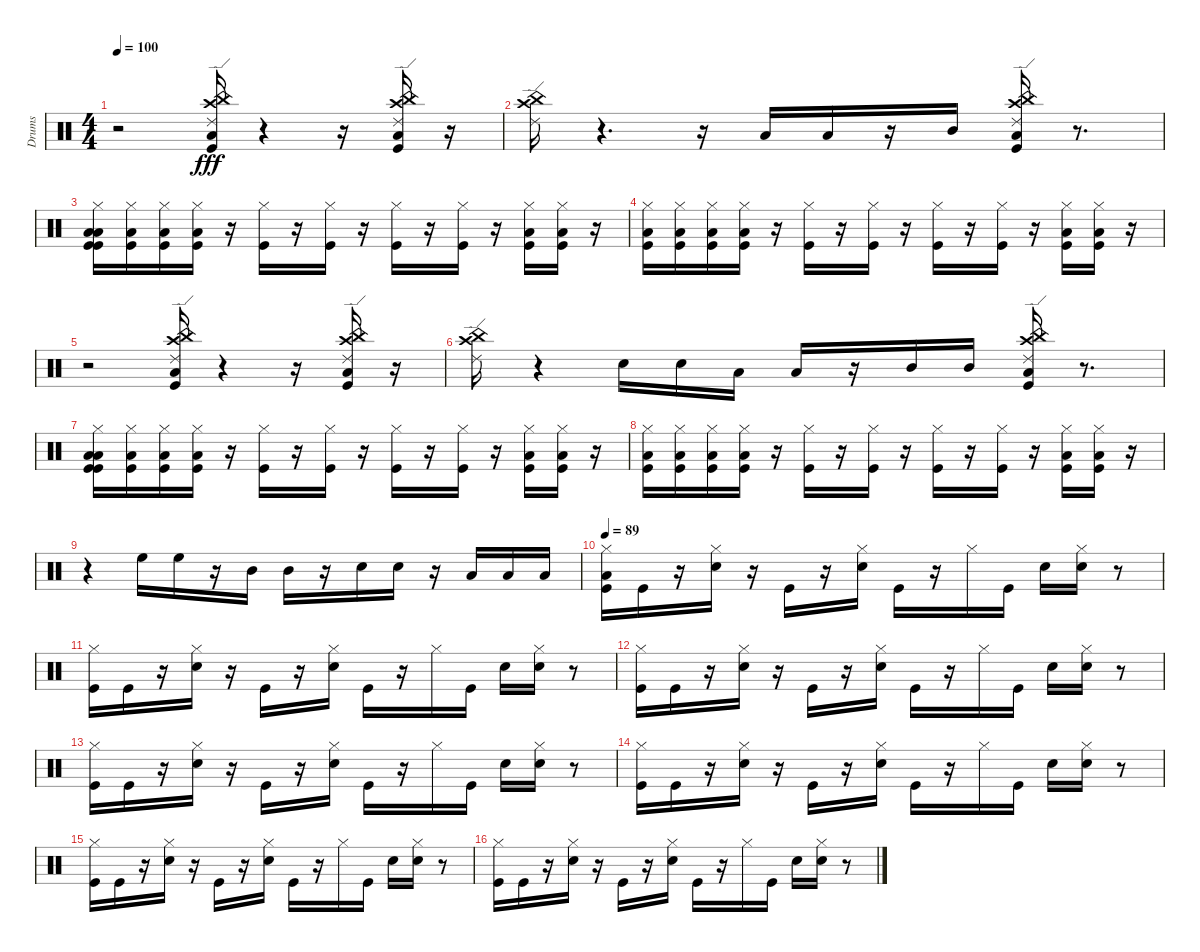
\track ("Drums" "Drums") {instrument percussion}
\staff {score}
\articulation defaults
\ts (4 4)
\tempo 100
\clef neutral
\ks c
r.2{dy fff} ("Ride (edge) 2" "Crash high (hit)" "China (hit)" "Low Tom (hit)" "Kick (hit)").16 r.4 r.16 ("Ride (edge) 2" "Crash high (hit)" "China (hit)" "Low Tom (hit)" "Kick (hit)").16 r.16 |
("Ride (edge) 2" "Crash high (hit)" "China (hit)").16 r.4{d} r.16 "Low Tom (hit)".16 "Low Tom (hit)".16 r.16 "Mid Tom (hit)".16 ("Ride (edge) 2" "Crash high (hit)" "China (hit)" "Low Tom (hit)" "Kick (hit)").16 r.8{d} |
("Low Tom (hit)" "Kick (hit)" "Hi-Hat (closed)" "Low Tom (hit)" "Kick (hit)").16 ("Hi-Hat (closed)" "Low Tom (hit)" "Kick (hit)").16 ("Hi-Hat (closed)" "Low Tom (hit)" "Kick (hit)").16 ("Hi-Hat (closed)" "Low Tom (hit)" "Kick (hit)").16 r.16 ("Hi-Hat (closed)" "Kick (hit)").16 r.16 ("Hi-Hat (closed)" "Kick (hit)").16 r.16 ("Hi-Hat (closed)" "Kick (hit)").16 r.16 ("Hi-Hat (closed)" "Kick (hit)").16 r.16 ("Hi-Hat (closed)" "Low Tom (hit)" "Kick (hit)").16 ("Hi-Hat (closed)" "Low Tom (hit)" "Kick (hit)").16 r.16 |
("Hi-Hat (closed)" "Low Tom (hit)" "Kick (hit)").16 ("Hi-Hat (closed)" "Low Tom (hit)" "Kick (hit)").16 ("Hi-Hat (closed)" "Low Tom (hit)" "Kick (hit)").16 ("Hi-Hat (closed)" "Low Tom (hit)" "Kick (hit)").16 r.16 ("Hi-Hat (closed)" "Kick (hit)").16 r.16 ("Hi-Hat (closed)" "Kick (hit)").16 r.16 ("Hi-Hat (closed)" "Kick (hit)").16 r.16 ("Hi-Hat (closed)" "Kick (hit)").16 r.16 ("Hi-Hat (closed)" "Low Tom (hit)" "Kick (hit)").16 ("Hi-Hat (closed)" "Low Tom (hit)" "Kick (hit)").16 r.16 |
r.2 ("Crash high (hit)" "China (hit)" "Ride (edge) 2" "Low Tom (hit)" "Kick (hit)").16 r.4 r.16 ("Ride (edge) 2" "Crash high (hit)" "China (hit)" "Low Tom (hit)" "Kick (hit)").16 r.16 |
("Ride (edge) 2" "Crash high (hit)" "China (hit)").16 r.4 "Electric Snare (hit)".16 "Electric Snare (hit)".16 "Low Tom (hit)".16 "Low Tom (hit)".16 r.16 "Mid Tom (hit)".16 "Mid Tom (hit)".16 ("Ride (edge) 2" "Crash high (hit)" "China (hit)" "Low Tom (hit)" "Kick (hit)").16 r.8{d} |
("Low Tom (hit)" "Kick (hit)" "Hi-Hat (closed)" "Low Tom (hit)" "Kick (hit)").16 ("Hi-Hat (closed)" "Low Tom (hit)" "Kick (hit)").16 ("Hi-Hat (closed)" "Low Tom (hit)" "Kick (hit)").16 ("Hi-Hat (closed)" "Low Tom (hit)" "Kick (hit)").16 r.16 ("Hi-Hat (closed)" "Kick (hit)").16 r.16 ("Hi-Hat (closed)" "Kick (hit)").16 r.16 ("Hi-Hat (closed)" "Kick (hit)").16 r.16 ("Hi-Hat (closed)" "Kick (hit)").16 r.16 ("Hi-Hat (closed)" "Low Tom (hit)" "Kick (hit)").16 ("Hi-Hat (closed)" "Low Tom (hit)" "Kick (hit)").16 r.16 |
("Hi-Hat (closed)" "Low Tom (hit)" "Kick (hit)").16 ("Hi-Hat (closed)" "Low Tom (hit)" "Kick (hit)").16 ("Hi-Hat (closed)" "Low Tom (hit)" "Kick (hit)").16 ("Hi-Hat (closed)" "Low Tom (hit)" "Kick (hit)").16 r.16 ("Hi-Hat (closed)" "Kick (hit)").16 r.16 ("Hi-Hat (closed)" "Kick (hit)").16 r.16 ("Hi-Hat (closed)" "Kick (hit)").16 r.16 ("Hi-Hat (closed)" "Kick (hit)").16 r.16 ("Hi-Hat (closed)" "Low Tom (hit)" "Kick (hit)").16 ("Hi-Hat (closed)" "Low Tom (hit)" "Kick (hit)").16 r.16 |
r.4 "High Floor Tom (hit)".16 "High Floor Tom (hit)".16 r.16 "Mid Tom (hit)".16 "Mid Tom (hit)".16 r.16 "Electric Snare (hit)".16 "Electric Snare (hit)".16 r.16 "Low Tom (hit)".16 "Low Tom (hit)".16 "Low Tom (hit)".16 |
\tempo 89
("Low Tom (hit)" "Kick (hit)" "Hi-Hat (closed)").16 "Kick (hit)".16 r.16 ("Electric Snare (hit)" "Hi-Hat (closed)").16 r.16 "Kick (hit)".16 r.16 ("Electric Snare (hit)" "Hi-Hat (closed)").16 "Kick (hit)".16 r.16 "Hi-Hat (closed)".16 "Kick (hit)".16 "Electric Snare (hit)".16 ("Electric Snare (hit)" "Hi-Hat (closed)").16 r.8 |
("Kick (hit)" "Hi-Hat (closed)").16 "Kick (hit)".16 r.16 ("Electric Snare (hit)" "Hi-Hat (closed)").16 r.16 "Kick (hit)".16 r.16 ("Electric Snare (hit)" "Hi-Hat (closed)").16 "Kick (hit)".16 r.16 "Hi-Hat (closed)".16 "Kick (hit)".16 "Electric Snare (hit)".16 ("Electric Snare (hit)" "Hi-Hat (closed)").16 r.8 |
("Kick (hit)" "Hi-Hat (closed)").16 "Kick (hit)".16 r.16 ("Electric Snare (hit)" "Hi-Hat (closed)").16 r.16 "Kick (hit)".16 r.16 ("Electric Snare (hit)" "Hi-Hat (closed)").16 "Kick (hit)".16 r.16 "Hi-Hat (closed)".16 "Kick (hit)".16 "Electric Snare (hit)".16 ("Electric Snare (hit)" "Hi-Hat (closed)").16 r.8 |
("Kick (hit)" "Hi-Hat (closed)").16 "Kick (hit)".16 r.16 ("Electric Snare (hit)" "Hi-Hat (closed)").16 r.16 "Kick (hit)".16 r.16 ("Electric Snare (hit)" "Hi-Hat (closed)").16 "Kick (hit)".16 r.16 "Hi-Hat (closed)".16 "Kick (hit)".16 "Electric Snare (hit)".16 ("Electric Snare (hit)" "Hi-Hat (closed)").16 r.8 |
("Kick (hit)" "Hi-Hat (closed)").16 "Kick (hit)".16 r.16 ("Electric Snare (hit)" "Hi-Hat (closed)").16 r.16 "Kick (hit)".16 r.16 ("Electric Snare (hit)" "Hi-Hat (closed)").16 "Kick (hit)".16 r.16 "Hi-Hat (closed)".16 "Kick (hit)".16 "Electric Snare (hit)".16 ("Electric Snare (hit)" "Hi-Hat (closed)").16 r.8 |
("Kick (hit)" "Hi-Hat (closed)").16 "Kick (hit)".16 r.16 ("Electric Snare (hit)" "Hi-Hat (closed)").16 r.16 "Kick (hit)".16 r.16 ("Electric Snare (hit)" "Hi-Hat (closed)").16 "Kick (hit)".16 r.16 "Hi-Hat (closed)".16 "Kick (hit)".16 "Electric Snare (hit)".16 ("Electric Snare (hit)" "Hi-Hat (closed)").16 r.8 |
("Kick (hit)" "Hi-Hat (closed)").16 "Kick (hit)".16 r.16 ("Electric Snare (hit)" "Hi-Hat (closed)").16 r.16 "Kick (hit)".16 r.16 ("Electric Snare (hit)" "Hi-Hat (closed)").16 "Kick (hit)".16 r.16 "Hi-Hat (closed)".16 "Kick (hit)".16 "Electric Snare (hit)".16 ("Electric Snare (hit)" "Hi-Hat (closed)").16 r.8
